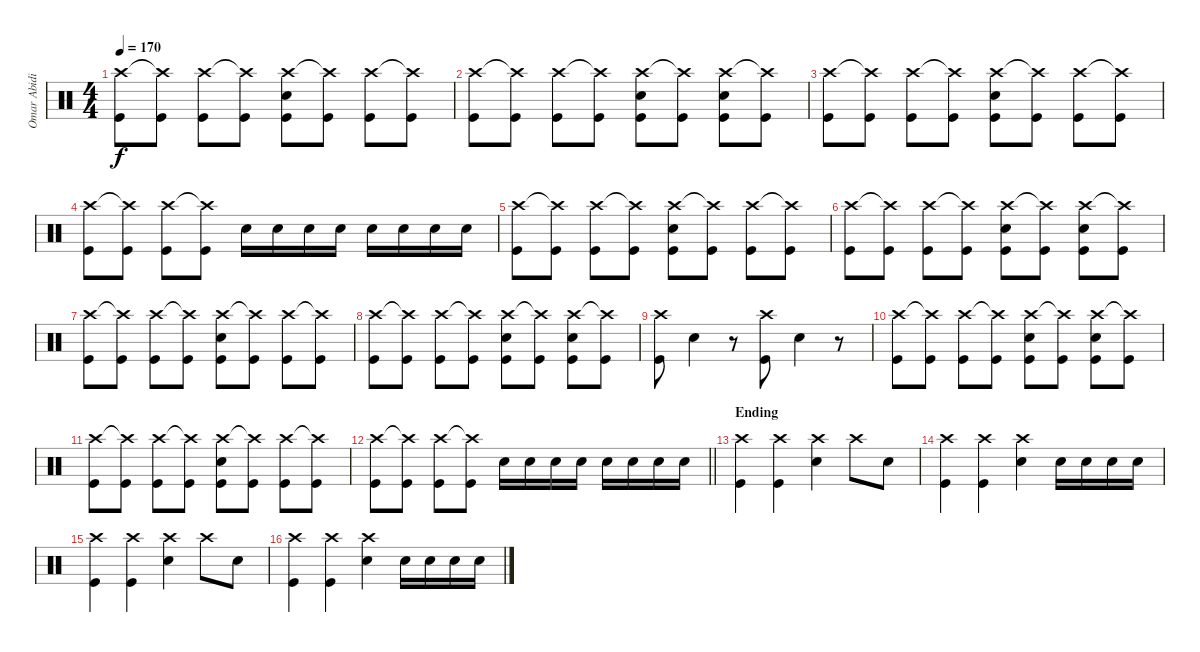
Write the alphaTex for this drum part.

\track ("Omar Abidi" "Omar Abidi") {instrument percussion}
\staff {score}
\articulation defaults
\ts (4 4)
\tempo 170
\clef neutral
\ks c
("Crash high (hit)" "Kick (hit)").8{dy f} ("Crash high (hit)"{t} "Kick (hit)").8 ("Crash high (hit)" "Kick (hit)").8 ("Crash high (hit)"{t} "Kick (hit)").8 ("Crash high (hit)" "Snare (hit) 2" "Kick (hit)").8 ("Crash high (hit)"{t} "Kick (hit)").8 ("Crash high (hit)" "Kick (hit)").8 ("Crash high (hit)"{t} "Kick (hit)").8 |
("Crash high (hit)" "Kick (hit)").8 ("Crash high (hit)"{t} "Kick (hit)").8 ("Crash high (hit)" "Kick (hit)").8 ("Crash high (hit)"{t} "Kick (hit)").8 ("Crash high (hit)" "Snare (hit) 2" "Kick (hit)").8 ("Crash high (hit)"{t} "Kick (hit)").8 ("Crash high (hit)" "Snare (hit) 2" "Kick (hit)").8 ("Crash high (hit)"{t} "Kick (hit)").8 |
("Crash high (hit)" "Kick (hit)").8 ("Crash high (hit)"{t} "Kick (hit)").8 ("Crash high (hit)" "Kick (hit)").8 ("Crash high (hit)"{t} "Kick (hit)").8 ("Crash high (hit)" "Snare (hit) 2" "Kick (hit)").8 ("Crash high (hit)"{t} "Kick (hit)").8 ("Crash high (hit)" "Kick (hit)").8 ("Crash high (hit)"{t} "Kick (hit)").8 |
("Crash high (hit)" "Kick (hit)").8 ("Crash high (hit)"{t} "Kick (hit)").8 ("Crash high (hit)" "Kick (hit)").8 ("Crash high (hit)"{t} "Kick (hit)").8 "Snare (hit) 2".16 "Snare (hit) 2".16 "Snare (hit) 2".16 "Snare (hit) 2".16 "Snare (hit) 2".16 "Snare (hit) 2".16 "Snare (hit) 2".16 "Snare (hit) 2".16 |
("Crash high (hit)" "Kick (hit)").8 ("Crash high (hit)"{t} "Kick (hit)").8 ("Crash high (hit)" "Kick (hit)").8 ("Crash high (hit)"{t} "Kick (hit)").8 ("Crash high (hit)" "Snare (hit) 2" "Kick (hit)").8 ("Crash high (hit)"{t} "Kick (hit)").8 ("Crash high (hit)" "Kick (hit)").8 ("Crash high (hit)"{t} "Kick (hit)").8 |
("Crash high (hit)" "Kick (hit)").8 ("Crash high (hit)"{t} "Kick (hit)").8 ("Crash high (hit)" "Kick (hit)").8 ("Crash high (hit)"{t} "Kick (hit)").8 ("Crash high (hit)" "Snare (hit) 2" "Kick (hit)").8 ("Crash high (hit)"{t} "Kick (hit)").8 ("Crash high (hit)" "Snare (hit) 2" "Kick (hit)").8 ("Crash high (hit)"{t} "Kick (hit)").8 |
("Crash high (hit)" "Kick (hit)").8 ("Crash high (hit)"{t} "Kick (hit)").8 ("Crash high (hit)" "Kick (hit)").8 ("Crash high (hit)"{t} "Kick (hit)").8 ("Crash high (hit)" "Snare (hit) 2" "Kick (hit)").8 ("Crash high (hit)"{t} "Kick (hit)").8 ("Crash high (hit)" "Kick (hit)").8 ("Crash high (hit)"{t} "Kick (hit)").8 |
("Crash high (hit)" "Kick (hit)").8 ("Crash high (hit)"{t} "Kick (hit)").8 ("Crash high (hit)" "Kick (hit)").8 ("Crash high (hit)"{t} "Kick (hit)").8 ("Crash high (hit)" "Snare (hit) 2" "Kick (hit)").8 ("Crash high (hit)"{t} "Kick (hit)").8 ("Crash high (hit)" "Snare (hit) 2" "Kick (hit)").8 ("Crash high (hit)"{t} "Kick (hit)").8 |
("Crash high (hit)" "Kick (hit)").8 "Snare (hit) 2".4 r.8 ("Crash high (hit)" "Kick (hit)").8 "Snare (hit) 2".4 r.8 |
("Crash high (hit)" "Kick (hit)").8 ("Crash high (hit)"{t} "Kick (hit)").8 ("Crash high (hit)" "Kick (hit)").8 ("Crash high (hit)"{t} "Kick (hit)").8 ("Crash high (hit)" "Snare (hit) 2" "Kick (hit)").8 ("Crash high (hit)"{t} "Kick (hit)").8 ("Crash high (hit)" "Snare (hit) 2" "Kick (hit)").8 ("Crash high (hit)"{t} "Kick (hit)").8 |
("Crash high (hit)" "Kick (hit)").8 ("Crash high (hit)"{t} "Kick (hit)").8 ("Crash high (hit)" "Kick (hit)").8 ("Crash high (hit)"{t} "Kick (hit)").8 ("Crash high (hit)" "Snare (hit) 2" "Kick (hit)").8 ("Crash high (hit)"{t} "Kick (hit)").8 ("Crash high (hit)" "Kick (hit)").8 ("Crash high (hit)"{t} "Kick (hit)").8 |
\barLineRight lightlight
("Crash high (hit)" "Kick (hit)").8 ("Crash high (hit)"{t} "Kick (hit)").8 ("Crash high (hit)" "Kick (hit)").8 ("Crash high (hit)"{t} "Kick (hit)").8 "Snare (hit) 2".16 "Snare (hit) 2".16 "Snare (hit) 2".16 "Snare (hit) 2".16 "Snare (hit) 2".16 "Snare (hit) 2".16 "Snare (hit) 2".16 "Snare (hit) 2".16 |
\section ("" "Ending")
("Crash high (hit)" "Kick (hit)").4 ("Crash high (hit)" "Kick (hit)").4 ("Crash high (hit)" "Snare (hit) 2").4 "Crash high (hit)".8 "Snare (hit) 2".8 |
("Crash high (hit)" "Kick (hit)").4 ("Crash high (hit)" "Kick (hit)").4 ("Crash high (hit)" "Snare (hit) 2").4 "Snare (hit) 2".16 "Snare (hit) 2".16 "Snare (hit) 2".16 "Snare (hit) 2".16 |
("Crash high (hit)" "Kick (hit)").4 ("Crash high (hit)" "Kick (hit)").4 ("Crash high (hit)" "Snare (hit) 2").4 "Crash high (hit)".8 "Snare (hit) 2".8 |
("Crash high (hit)" "Kick (hit)").4 ("Crash high (hit)" "Kick (hit)").4 ("Crash high (hit)" "Snare (hit) 2").4 "Snare (hit) 2".16 "Snare (hit) 2".16 "Snare (hit) 2".16 "Snare (hit) 2".16
